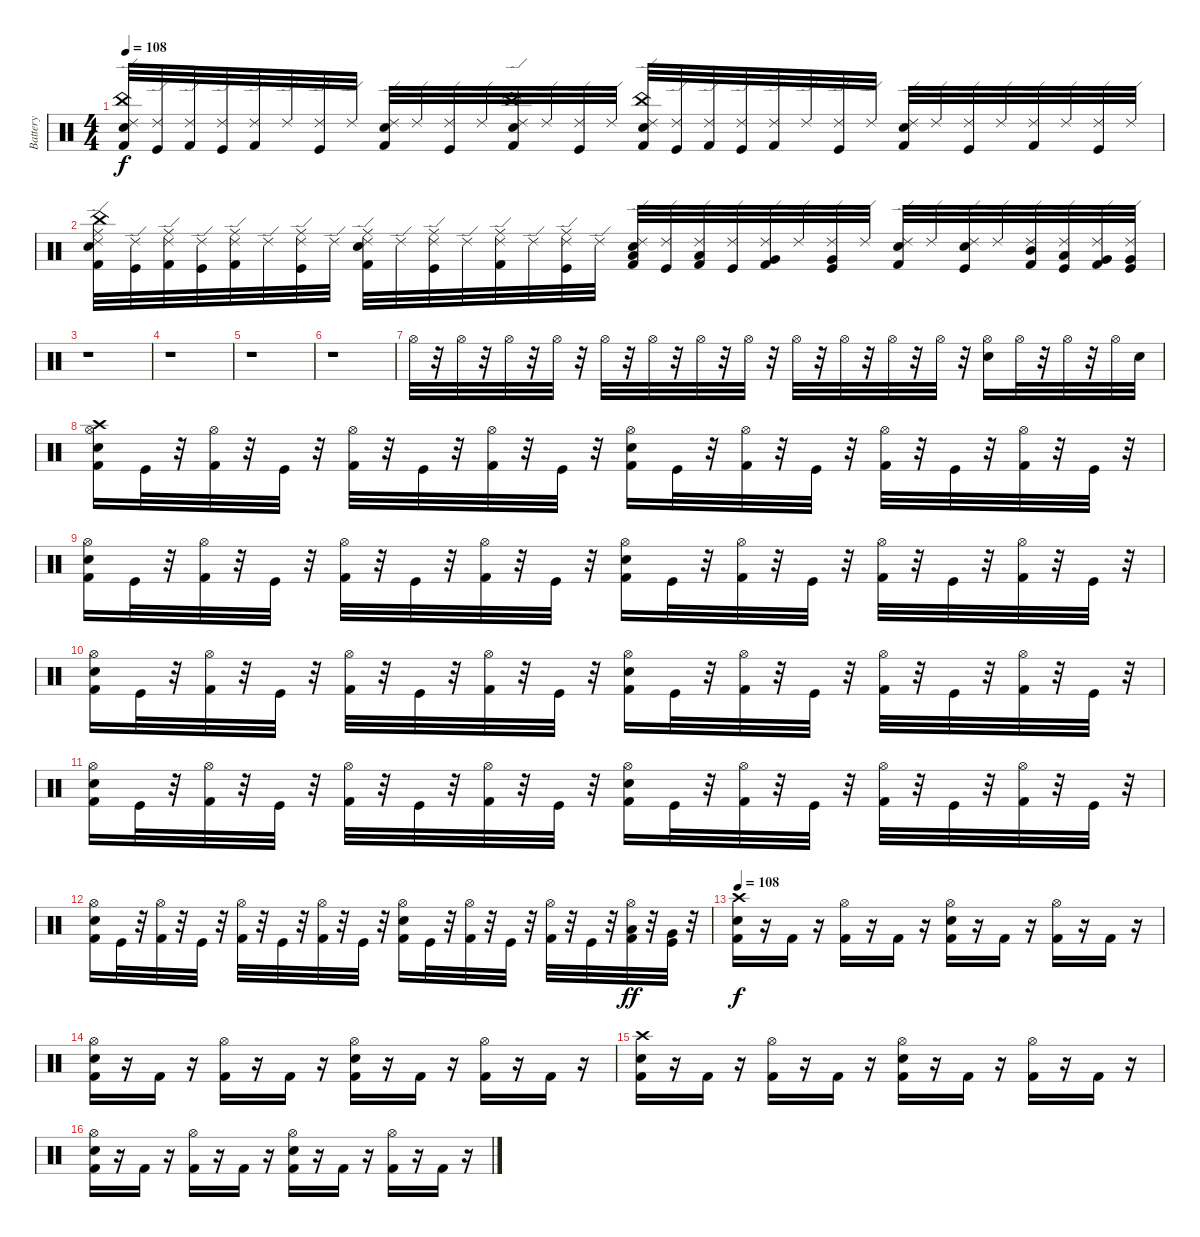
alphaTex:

\track ("Battery" "Battery") {instrument percussion}
\staff {score}
\articulation defaults
\ts (4 4)
\tempo 108
\clef neutral
\ks c
("Electric Snare (hit)" "Kick (hit) 2" "China (hit)" "Ride (edge) 2").32{dy f} ("Ride (edge) 2" "Kick (hit)").32 ("Kick (hit) 2" "Ride (edge) 2").32 ("Ride (edge) 2" "Kick (hit)").32 ("Kick (hit) 2" "Ride (edge) 2").32 "Ride (edge) 2".32 ("Ride (edge) 2" "Kick (hit)").32 "Ride (edge) 2".32 ("Ride (edge) 2" "Electric Snare (hit)" "Kick (hit) 2").32 "Ride (edge) 2".32 ("Kick (hit)" "Ride (edge) 2").32 "Ride (edge) 2".32 ("Ride (edge) 2" "Kick (hit) 2" "Snare (hit) 2" "China (hit)").32 "Ride (edge) 2".32 ("Kick (hit)" "Ride (edge) 2").32 "Ride (edge) 2".32 ("Ride (edge) 2" "Electric Snare (hit)" "China (hit)" "Kick (hit) 2").32 ("Ride (edge) 2" "Kick (hit)").32 ("Ride (edge) 2" "Kick (hit) 2").32 ("Ride (edge) 2" "Kick (hit)").32 ("Kick (hit) 2" "Ride (edge) 2").32 "Ride (edge) 2".32 ("Ride (edge) 2" "Kick (hit)").32 "Ride (edge) 2".32 ("Kick (hit) 2" "Electric Snare (hit)" "Ride (edge) 2").32 "Ride (edge) 2".32 ("Kick (hit)" "Ride (edge) 2").32 "Ride (edge) 2".32 ("Ride (edge) 2" "Kick (hit) 2").32 "Ride (edge) 2".32 ("Kick (hit)" "Ride (edge) 2").32 "Ride (edge) 2".32 |
("Ride (middle)" "Kick (hit) 2" "China (hit)" "Electric Snare (hit)" "Ride (edge) 2").32 ("Ride (edge) 2" "Kick (hit)").32 ("Ride (middle)" "Kick (hit) 2" "Ride (edge) 2").32 ("Ride (edge) 2" "Kick (hit)").32 ("Kick (hit) 2" "Ride (edge) 2" "Ride (middle)").32 "Ride (edge) 2".32 ("Ride (edge) 2" "Kick (hit)" "Ride (middle)").32 "Ride (edge) 2".32 ("Ride (edge) 2" "Kick (hit) 2" "Ride (middle)" "Electric Snare (hit)").32 "Ride (edge) 2".32 ("Kick (hit)" "Ride (middle)" "Ride (edge) 2").32 "Ride (edge) 2".32 ("Ride (edge) 2" "Kick (hit) 2" "Ride (middle)").32 "Ride (edge) 2".32 ("Kick (hit)" "Ride (middle)" "Ride (edge) 2").32 "Ride (edge) 2".32 ("Kick (hit) 2" "Electric Snare (hit)" "Ride (edge) 2" "Low Tom (hit)").32 ("Ride (edge) 2" "Kick (hit)").32 ("Low Tom (hit)" "Ride (edge) 2" "Kick (hit) 2").32 ("Kick (hit)" "Ride (edge) 2").32 ("Ride (edge) 2" "Very Low Tom (hit)" "Kick (hit) 2").32 "Ride (edge) 2".32 ("Very Low Tom (hit)" "Ride (edge) 2" "Kick (hit)").32 "Ride (edge) 2".32 ("Kick (hit) 2" "Ride (edge) 2" "Electric Snare (hit)").32 "Ride (edge) 2".32 ("Ride (edge) 2" "Electric Snare (hit)" "Kick (hit)").32 "Ride (edge) 2".32 ("Mid Tom (hit)" "Kick (hit) 2" "Ride (edge) 2").32 ("Ride (edge) 2" "Low Tom (hit)" "Kick (hit)").32 ("Very Low Tom (hit)" "Ride (edge) 2" "Kick (hit) 2").32 ("Ride (edge) 2" "Very Low Tom (hit)" "Kick (hit)").32 |
r.1 |
r.1 |
r.1 |
r.1 |
"Hi-Hat (open)".32 r.32 "Hi-Hat (open)".32 r.32 "Hi-Hat (open)".32 r.32 "Hi-Hat (open)".32 r.32 "Hi-Hat (open)".32 r.32 "Hi-Hat (open)".32 r.32 "Hi-Hat (open)".32 r.32 "Hi-Hat (open)".32 r.32 "Hi-Hat (open)".32 r.32 "Hi-Hat (open)".32 r.32 "Hi-Hat (open)".32 r.32 "Hi-Hat (open)".32 r.32 ("Hi-Hat (open)" "Electric Snare (hit)").16 "Hi-Hat (open)".32 r.32 "Hi-Hat (open)".32 r.32 "Hi-Hat (open)".32 "Electric Snare (hit)".32 |
("Snare (hit) 2" "Kick (hit) 2" "Hi-Hat (open)" "Crash high (hit)").16 "Kick (hit)".32 r.32 ("Kick (hit) 2" "Hi-Hat (open)").32 r.32 "Kick (hit)".32 r.32 ("Hi-Hat (open)" "Kick (hit) 2").32 r.32 "Kick (hit)".32 r.32 ("Hi-Hat (open)" "Kick (hit) 2").32 r.32 "Kick (hit)".32 r.32 ("Snare (hit) 2" "Hi-Hat (open)" "Kick (hit) 2").16 "Kick (hit)".32 r.32 ("Kick (hit) 2" "Hi-Hat (open)").32 r.32 "Kick (hit)".32 r.32 ("Hi-Hat (open)" "Kick (hit) 2").32 r.32 "Kick (hit)".32 r.32 ("Hi-Hat (open)" "Kick (hit) 2").32 r.32 "Kick (hit)".32 r.32 |
("Hi-Hat (open)" "Kick (hit) 2" "Snare (hit) 2").16 "Kick (hit)".32 r.32 ("Hi-Hat (open)" "Kick (hit) 2").32 r.32 "Kick (hit)".32 r.32 ("Hi-Hat (open)" "Kick (hit) 2").32 r.32 "Kick (hit)".32 r.32 ("Kick (hit) 2" "Hi-Hat (open)").32 r.32 "Kick (hit)".32 r.32 ("Kick (hit) 2" "Hi-Hat (open)" "Snare (hit) 2").16 "Kick (hit)".32 r.32 ("Hi-Hat (open)" "Kick (hit) 2").32 r.32 "Kick (hit)".32 r.32 ("Kick (hit) 2" "Hi-Hat (open)").32 r.32 "Kick (hit)".32 r.32 ("Hi-Hat (open)" "Kick (hit) 2").32 r.32 "Kick (hit)".32 r.32 |
("Snare (hit) 2" "Hi-Hat (open)" "Kick (hit) 2").16 "Kick (hit)".32 r.32 ("Hi-Hat (open)" "Kick (hit) 2").32 r.32 "Kick (hit)".32 r.32 ("Hi-Hat (open)" "Kick (hit) 2").32 r.32 "Kick (hit)".32 r.32 ("Hi-Hat (open)" "Kick (hit) 2").32 r.32 "Kick (hit)".32 r.32 ("Hi-Hat (open)" "Snare (hit) 2" "Kick (hit) 2").16 "Kick (hit)".32 r.32 ("Hi-Hat (open)" "Kick (hit) 2").32 r.32 "Kick (hit)".32 r.32 ("Kick (hit) 2" "Hi-Hat (open)").32 r.32 "Kick (hit)".32 r.32 ("Hi-Hat (open)" "Kick (hit) 2").32 r.32 "Kick (hit)".32 r.32 |
("Kick (hit) 2" "Hi-Hat (open)" "Snare (hit) 2").16 "Kick (hit)".32 r.32 ("Hi-Hat (open)" "Kick (hit) 2").32 r.32 "Kick (hit)".32 r.32 ("Kick (hit) 2" "Hi-Hat (open)").32 r.32 "Kick (hit)".32 r.32 ("Hi-Hat (open)" "Kick (hit) 2").32 r.32 "Kick (hit)".32 r.32 ("Hi-Hat (open)" "Snare (hit) 2" "Kick (hit) 2").16 "Kick (hit)".32 r.32 ("Kick (hit) 2" "Hi-Hat (open)").32 r.32 "Kick (hit)".32 r.32 ("Kick (hit) 2" "Hi-Hat (open)").32 r.32 "Kick (hit)".32 r.32 ("Hi-Hat (open)" "Kick (hit) 2").32 r.32 "Kick (hit)".32 r.32 |
("Kick (hit) 2" "Hi-Hat (open)" "Snare (hit) 2").16 "Kick (hit)".32 r.32 ("Hi-Hat (open)" "Kick (hit) 2").32 r.32 "Kick (hit)".32 r.32 ("Hi-Hat (open)" "Kick (hit) 2").32 r.32 "Kick (hit)".32 r.32 ("Hi-Hat (open)" "Kick (hit) 2").32 r.32 "Kick (hit)".32 r.32 ("Snare (hit) 2" "Hi-Hat (open)" "Kick (hit) 2").16 "Kick (hit)".32 r.32 ("Kick (hit) 2" "Hi-Hat (open)").32 r.32 "Kick (hit)".32 r.32 ("Hi-Hat (open)" "Kick (hit) 2").32 r.32 "Kick (hit)".32 r.32 ("Hi-Hat (open)" "Kick (hit) 2" "Low Tom (hit)").32{dy ff} r.32 ("Kick (hit)" "Very Low Tom (hit)").32 r.32 |
\tempo 108
("Electric Snare (hit)" "Kick (hit) 2" "Crash high (hit)").16{dy f} r.16 "Kick (hit) 2".16 r.16 ("Kick (hit) 2" "Hi-Hat (open)").16 r.16 "Kick (hit) 2".16 r.16 ("Electric Snare (hit)" "Kick (hit) 2" "Hi-Hat (open)").16 r.16 "Kick (hit) 2".16 r.16 ("Hi-Hat (open)" "Kick (hit) 2").16 r.16 "Kick (hit) 2".16 r.16 |
("Hi-Hat (open)" "Kick (hit) 2" "Electric Snare (hit)").16 r.16 "Kick (hit) 2".16 r.16 ("Kick (hit) 2" "Hi-Hat (open)").16 r.16 "Kick (hit) 2".16 r.16 ("Kick (hit) 2" "Hi-Hat (open)" "Electric Snare (hit)").16 r.16 "Kick (hit) 2".16 r.16 ("Kick (hit) 2" "Hi-Hat (open)").16 r.16 "Kick (hit) 2".16 r.16 |
("Electric Snare (hit)" "Kick (hit) 2" "Crash high (hit)").16 r.16 "Kick (hit) 2".16 r.16 ("Kick (hit) 2" "Hi-Hat (open)").16 r.16 "Kick (hit) 2".16 r.16 ("Electric Snare (hit)" "Kick (hit) 2" "Hi-Hat (open)").16 r.16 "Kick (hit) 2".16 r.16 ("Hi-Hat (open)" "Kick (hit) 2").16 r.16 "Kick (hit) 2".16 r.16 |
("Hi-Hat (open)" "Kick (hit) 2" "Electric Snare (hit)").16 r.16 "Kick (hit) 2".16 r.16 ("Kick (hit) 2" "Hi-Hat (open)").16 r.16 "Kick (hit) 2".16 r.16 ("Kick (hit) 2" "Hi-Hat (open)" "Electric Snare (hit)").16 r.16 "Kick (hit) 2".16 r.16 ("Kick (hit) 2" "Hi-Hat (open)").16 r.16 "Kick (hit) 2".16 r.16
